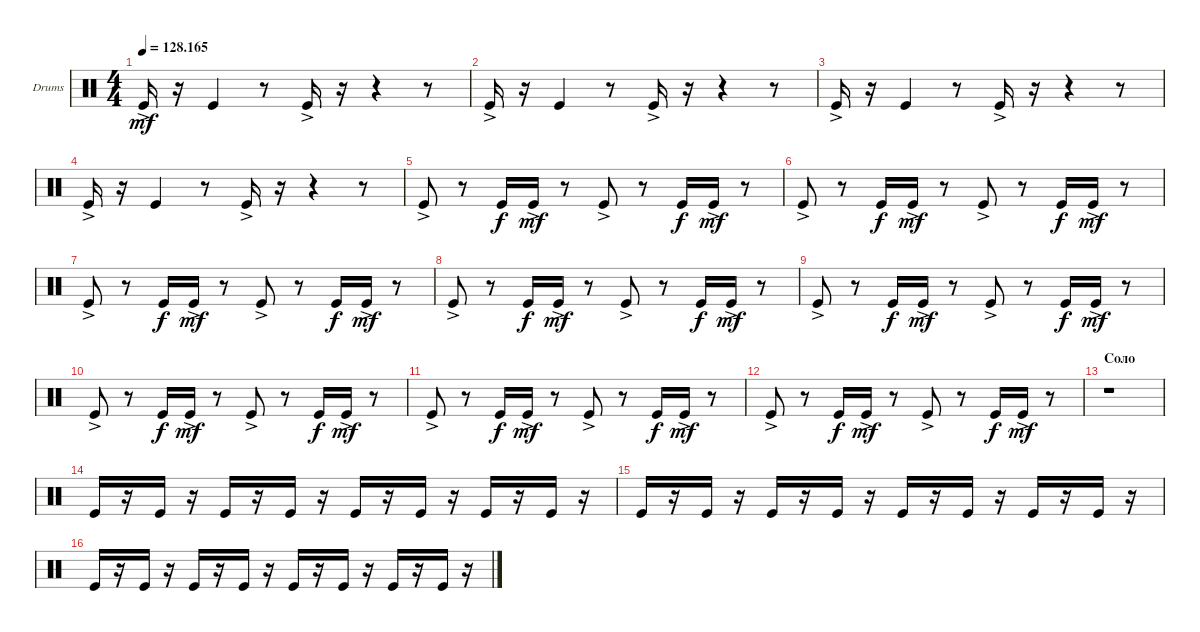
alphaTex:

\defaultSystemsLayout 4
\bracketExtendMode groupsimilarinstruments
\firstSystemTrackNameOrientation horizontal
\otherSystemsTrackNameOrientation horizontal
\track ("Drumkit" "Drums") {instrument percussion}
\staff {score}
\articulation defaults
\ts (4 4)
\tempo
128.165
\accidentals auto
\clef neutral
\ottava regular
\simile none
\ks c "Kick (hit)"{ac}.16{dy mf}
r.16 "Kick (hit)".4 r.8 "Kick (hit)"{ac}.16 r.16 r.4 r.8 |
"Kick (hit)"{ac}.16 r.16 "Kick (hit)".4 r.8 "Kick (hit)"{ac}.16 r.16 r.4 r.8 |
"Kick (hit)"{ac}.16 r.16 "Kick (hit)".4 r.8 "Kick (hit)"{ac}.16 r.16 r.4 r.8 |
"Kick (hit)"{ac}.16 r.16 "Kick (hit)".4 r.8 "Kick (hit)"{ac}.16 r.16 r.4 r.8 |
"Kick (hit)"{ac}.8 r.8 "Kick (hit)".16{dy f} "Kick (hit)"{ac}.16{dy mf} r.8 "Kick (hit)"{ac}.8 r.8 "Kick (hit)".16{dy f} "Kick (hit)"{ac}.16{dy mf} r.8 |
"Kick (hit)"{ac}.8 r.8 "Kick (hit)".16{dy f} "Kick (hit)"{ac}.16{dy mf} r.8 "Kick (hit)"{ac}.8 r.8 "Kick (hit)".16{dy f} "Kick (hit)"{ac}.16{dy mf} r.8 |
"Kick (hit)"{ac}.8 r.8 "Kick (hit)".16{dy f} "Kick (hit)"{ac}.16{dy mf} r.8 "Kick (hit)"{ac}.8 r.8 "Kick (hit)".16{dy f} "Kick (hit)"{ac}.16{dy mf} r.8 |
"Kick (hit)"{ac}.8 r.8 "Kick (hit)".16{dy f} "Kick (hit)"{ac}.16{dy mf} r.8 "Kick (hit)"{ac}.8 r.8 "Kick (hit)".16{dy f} "Kick (hit)"{ac}.16{dy mf} r.8 |
"Kick (hit)"{ac}.8 r.8 "Kick (hit)".16{dy f} "Kick (hit)"{ac}.16{dy mf} r.8 "Kick (hit)"{ac}.8 r.8 "Kick (hit)".16{dy f} "Kick (hit)"{ac}.16{dy mf} r.8 |
"Kick (hit)"{ac}.8 r.8 "Kick (hit)".16{dy f} "Kick (hit)"{ac}.16{dy mf} r.8 "Kick (hit)"{ac}.8 r.8 "Kick (hit)".16{dy f} "Kick (hit)"{ac}.16{dy mf} r.8 |
"Kick (hit)"{ac}.8 r.8 "Kick (hit)".16{dy f} "Kick (hit)"{ac}.16{dy mf} r.8 "Kick (hit)"{ac}.8 r.8 "Kick (hit)".16{dy f} "Kick (hit)"{ac}.16{dy mf} r.8 |
"Kick (hit)"{ac}.8 r.8 "Kick (hit)".16{dy f} "Kick (hit)"{ac}.16{dy mf} r.8 "Kick (hit)"{ac}.8 r.8 "Kick (hit)".16{dy f} "Kick (hit)"{ac}.16{dy mf} r.8 |
\section ("" "Соло")
r.1 |
"Kick (hit)".16 r.16 "Kick (hit)".16 r.16 "Kick (hit)".16 r.16 "Kick (hit)".16 r.16 "Kick (hit)".16 r.16 "Kick (hit)".16 r.16 "Kick (hit)".16 r.16 "Kick (hit)".16 r.16 |
"Kick (hit)".16 r.16 "Kick (hit)".16 r.16 "Kick (hit)".16 r.16 "Kick (hit)".16 r.16 "Kick (hit)".16 r.16 "Kick (hit)".16 r.16 "Kick (hit)".16 r.16 "Kick (hit)".16 r.16 |
"Kick (hit)".16 r.16 "Kick (hit)".16 r.16 "Kick (hit)".16 r.16 "Kick (hit)".16 r.16 "Kick (hit)".16 r.16 "Kick (hit)".16 r.16 "Kick (hit)".16 r.16 "Kick (hit)".16 r.16
